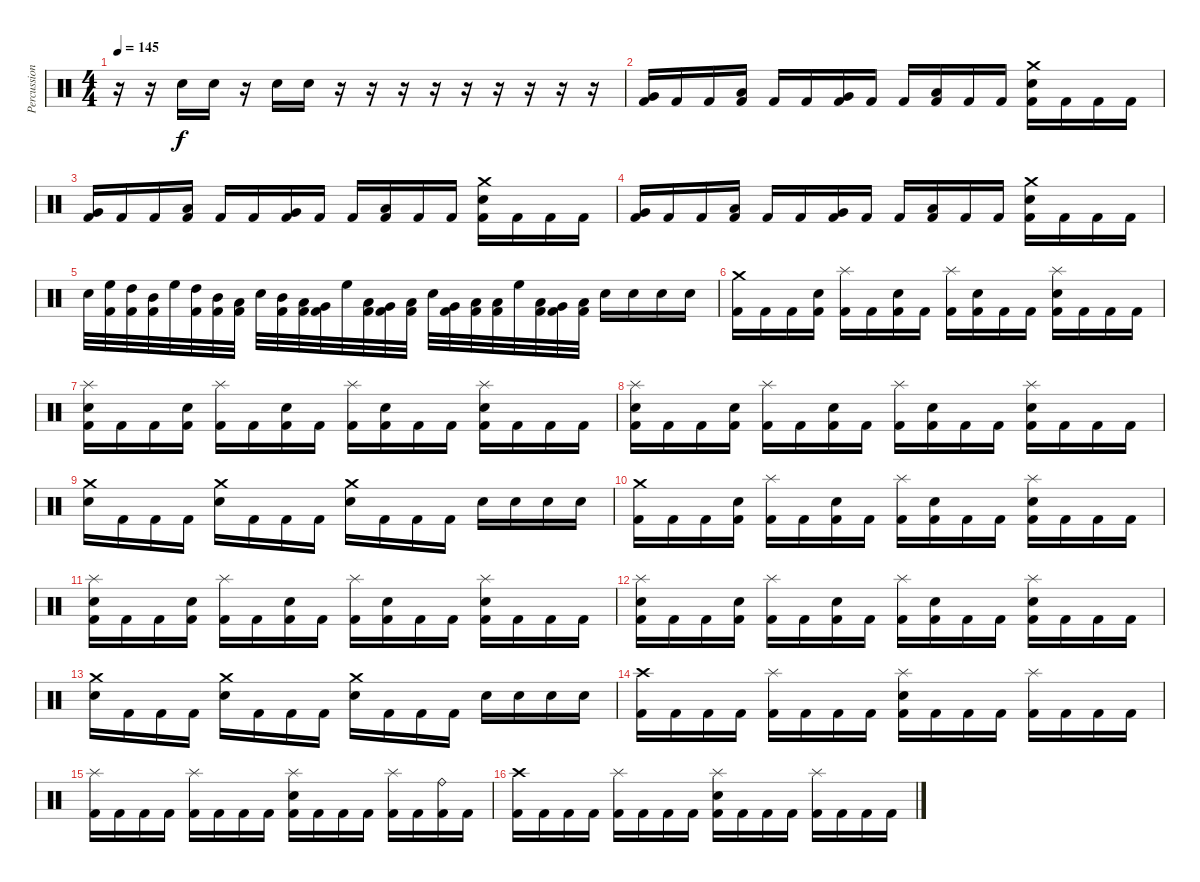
\track ("Percussion" "Percussion") {instrument percussion}
\staff {score}
\articulation defaults
\ts (4 4)
\tempo 145
\clef neutral
\ks c
r.16{dy f} r.16 "Electric Snare (hit)".16 "Electric Snare (hit)".16 r.16 "Electric Snare (hit)".16 "Electric Snare (hit)".16 r.16 r.16 r.16 r.16 r.16 r.16 r.16 r.16 r.16 |
("Very Low Tom (hit)" "Kick (hit) 2").16 "Kick (hit) 2".16 "Kick (hit) 2".16 ("Low Floor Tom (hit)" "Kick (hit) 2").16 "Kick (hit) 2".16 "Kick (hit) 2".16 ("Very Low Tom (hit)" "Kick (hit) 2").16 "Kick (hit) 2".16 "Kick (hit) 2".16 ("Low Floor Tom (hit)" "Kick (hit) 2").16 "Kick (hit) 2".16 "Kick (hit) 2".16 ("Crash medium (hit)" "Electric Snare (hit)" "Kick (hit) 2").16 "Kick (hit) 2".16 "Kick (hit) 2".16 "Kick (hit) 2".16 |
("Very Low Tom (hit)" "Kick (hit) 2").16 "Kick (hit) 2".16 "Kick (hit) 2".16 ("Low Floor Tom (hit)" "Kick (hit) 2").16 "Kick (hit) 2".16 "Kick (hit) 2".16 ("Very Low Tom (hit)" "Kick (hit) 2").16 "Kick (hit) 2".16 "Kick (hit) 2".16 ("Low Floor Tom (hit)" "Kick (hit) 2").16 "Kick (hit) 2".16 "Kick (hit) 2".16 ("Crash medium (hit)" "Electric Snare (hit)" "Kick (hit) 2").16 "Kick (hit) 2".16 "Kick (hit) 2".16 "Kick (hit) 2".16 |
("Very Low Tom (hit)" "Kick (hit) 2").16 "Kick (hit) 2".16 "Kick (hit) 2".16 ("Low Floor Tom (hit)" "Kick (hit) 2").16 "Kick (hit) 2".16 "Kick (hit) 2".16 ("Very Low Tom (hit)" "Kick (hit) 2").16 "Kick (hit) 2".16 "Kick (hit) 2".16 ("Low Floor Tom (hit)" "Kick (hit) 2").16 "Kick (hit) 2".16 "Kick (hit) 2".16 ("Crash medium (hit)" "Electric Snare (hit)" "Kick (hit) 2").16 "Kick (hit) 2".16 "Kick (hit) 2".16 "Kick (hit) 2".16 |
"Electric Snare (hit)".32 ("High Floor Tom (hit)" "Kick (hit) 2").32 ("High Tom (hit)" "Kick (hit) 2").32 ("Mid Tom (hit)" "Kick (hit) 2").32 "High Floor Tom (hit)".32 ("High Tom (hit)" "Kick (hit) 2").32 ("Mid Tom (hit)" "Kick (hit) 2").32 ("Low Tom (hit)" "Kick (hit) 2").32 "Electric Snare (hit)".32 ("Mid Tom (hit)" "Kick (hit) 2").32 ("Low Tom (hit)" "Kick (hit) 2").32 ("Very Low Tom (hit)" "Kick (hit) 2").32 "High Floor Tom (hit)".32 ("Low Tom (hit)" "Kick (hit) 2").32 ("Very Low Tom (hit)" "Kick (hit) 2").32 ("Low Floor Tom (hit)" "Kick (hit) 2").32 "Electric Snare (hit)".32 ("Very Low Tom (hit)" "Kick (hit) 2").32 ("Low Tom (hit)" "Kick (hit) 2").32 ("Low Floor Tom (hit)" "Kick (hit) 2").32 "High Floor Tom (hit)".32 ("Low Floor Tom (hit)" "Kick (hit) 2").32 ("Very Low Tom (hit)" "Kick (hit) 2").32 ("Low Floor Tom (hit)" "Kick (hit) 2").32 "Electric Snare (hit)".16 "Electric Snare (hit)".16 "Electric Snare (hit)".16 "Electric Snare (hit)".16 |
("Crash medium (hit)" "Kick (hit) 2").16 "Kick (hit) 2".16 "Kick (hit) 2".16 ("Electric Snare (hit)" "Kick (hit) 2").16 ("Splash (hit)" "Kick (hit) 2").16 "Kick (hit) 2".16 ("Electric Snare (hit)" "Kick (hit) 2").16 "Kick (hit) 2".16 ("Splash (hit)" "Kick (hit) 2").16 ("Electric Snare (hit)" "Kick (hit) 2").16 "Kick (hit) 2".16 "Kick (hit) 2".16 ("Splash (hit)" "Electric Snare (hit)" "Kick (hit) 2").16 "Kick (hit) 2".16 "Kick (hit) 2".16 "Kick (hit) 2".16 |
("Splash (hit)" "Electric Snare (hit)" "Kick (hit) 2").16 "Kick (hit) 2".16 "Kick (hit) 2".16 ("Electric Snare (hit)" "Kick (hit) 2").16 ("Splash (hit)" "Kick (hit) 2").16 "Kick (hit) 2".16 ("Electric Snare (hit)" "Kick (hit) 2").16 "Kick (hit) 2".16 ("Splash (hit)" "Kick (hit) 2").16 ("Electric Snare (hit)" "Kick (hit) 2").16 "Kick (hit) 2".16 "Kick (hit) 2".16 ("Splash (hit)" "Electric Snare (hit)" "Kick (hit) 2").16 "Kick (hit) 2".16 "Kick (hit) 2".16 "Kick (hit) 2".16 |
("Splash (hit)" "Electric Snare (hit)" "Kick (hit) 2").16 "Kick (hit) 2".16 "Kick (hit) 2".16 ("Electric Snare (hit)" "Kick (hit) 2").16 ("Splash (hit)" "Kick (hit) 2").16 "Kick (hit) 2".16 ("Electric Snare (hit)" "Kick (hit) 2").16 "Kick (hit) 2".16 ("Splash (hit)" "Kick (hit) 2").16 ("Electric Snare (hit)" "Kick (hit) 2").16 "Kick (hit) 2".16 "Kick (hit) 2".16 ("Splash (hit)" "Electric Snare (hit)" "Kick (hit) 2").16 "Kick (hit) 2".16 "Kick (hit) 2".16 "Kick (hit) 2".16 |
("Crash medium (hit)" "Electric Snare (hit)").16 "Kick (hit) 2".16 "Kick (hit) 2".16 "Kick (hit) 2".16 ("Crash medium (hit)" "Electric Snare (hit)").16 "Kick (hit) 2".16 "Kick (hit) 2".16 "Kick (hit) 2".16 ("Crash medium (hit)" "Electric Snare (hit)").16 "Kick (hit) 2".16 "Kick (hit) 2".16 "Kick (hit) 2".16 "Electric Snare (hit)".16 "Electric Snare (hit)".16 "Electric Snare (hit)".16 "Electric Snare (hit)".16 |
("Crash medium (hit)" "Kick (hit) 2").16 "Kick (hit) 2".16 "Kick (hit) 2".16 ("Electric Snare (hit)" "Kick (hit) 2").16 ("Splash (hit)" "Kick (hit) 2").16 "Kick (hit) 2".16 ("Electric Snare (hit)" "Kick (hit) 2").16 "Kick (hit) 2".16 ("Splash (hit)" "Kick (hit) 2").16 ("Electric Snare (hit)" "Kick (hit) 2").16 "Kick (hit) 2".16 "Kick (hit) 2".16 ("Splash (hit)" "Electric Snare (hit)" "Kick (hit) 2").16 "Kick (hit) 2".16 "Kick (hit) 2".16 "Kick (hit) 2".16 |
("Splash (hit)" "Electric Snare (hit)" "Kick (hit) 2").16 "Kick (hit) 2".16 "Kick (hit) 2".16 ("Electric Snare (hit)" "Kick (hit) 2").16 ("Splash (hit)" "Kick (hit) 2").16 "Kick (hit) 2".16 ("Electric Snare (hit)" "Kick (hit) 2").16 "Kick (hit) 2".16 ("Splash (hit)" "Kick (hit) 2").16 ("Electric Snare (hit)" "Kick (hit) 2").16 "Kick (hit) 2".16 "Kick (hit) 2".16 ("Splash (hit)" "Electric Snare (hit)" "Kick (hit) 2").16 "Kick (hit) 2".16 "Kick (hit) 2".16 "Kick (hit) 2".16 |
("Splash (hit)" "Electric Snare (hit)" "Kick (hit) 2").16 "Kick (hit) 2".16 "Kick (hit) 2".16 ("Electric Snare (hit)" "Kick (hit) 2").16 ("Splash (hit)" "Kick (hit) 2").16 "Kick (hit) 2".16 ("Electric Snare (hit)" "Kick (hit) 2").16 "Kick (hit) 2".16 ("Splash (hit)" "Kick (hit) 2").16 ("Electric Snare (hit)" "Kick (hit) 2").16 "Kick (hit) 2".16 "Kick (hit) 2".16 ("Splash (hit)" "Electric Snare (hit)" "Kick (hit) 2").16 "Kick (hit) 2".16 "Kick (hit) 2".16 "Kick (hit) 2".16 |
("Crash medium (hit)" "Electric Snare (hit)").16 "Kick (hit) 2".16 "Kick (hit) 2".16 "Kick (hit) 2".16 ("Crash medium (hit)" "Electric Snare (hit)").16 "Kick (hit) 2".16 "Kick (hit) 2".16 "Kick (hit) 2".16 ("Crash medium (hit)" "Electric Snare (hit)").16 "Kick (hit) 2".16 "Kick (hit) 2".16 "Kick (hit) 2".16 "Electric Snare (hit)".16 "Electric Snare (hit)".16 "Electric Snare (hit)".16 "Electric Snare (hit)".16 |
("Crash high (hit)" "Kick (hit) 2").16 "Kick (hit) 2".16 "Kick (hit) 2".16 "Kick (hit) 2".16 ("Splash (hit)" "Kick (hit) 2").16 "Kick (hit) 2".16 "Kick (hit) 2".16 "Kick (hit) 2".16 ("Splash (hit)" "Electric Snare (hit)" "Kick (hit) 2").16 "Kick (hit) 2".16 "Kick (hit) 2".16 "Kick (hit) 2".16 ("Splash (hit)" "Kick (hit) 2").16 "Kick (hit) 2".16 "Kick (hit) 2".16 "Kick (hit) 2".16 |
("Splash (hit)" "Kick (hit) 2").16 "Kick (hit) 2".16 "Kick (hit) 2".16 "Kick (hit) 2".16 ("Splash (hit)" "Kick (hit) 2").16 "Kick (hit) 2".16 "Kick (hit) 2".16 "Kick (hit) 2".16 ("Splash (hit)" "Electric Snare (hit)" "Kick (hit) 2").16 "Kick (hit) 2".16 "Kick (hit) 2".16 "Kick (hit) 2".16 ("Splash (hit)" "Kick (hit) 2").16 "Kick (hit) 2".16 ("Ride (bell)" "Kick (hit) 2").16 "Kick (hit) 2".16 |
("Crash high (hit)" "Kick (hit) 2").16 "Kick (hit) 2".16 "Kick (hit) 2".16 "Kick (hit) 2".16 ("Splash (hit)" "Kick (hit) 2").16 "Kick (hit) 2".16 "Kick (hit) 2".16 "Kick (hit) 2".16 ("Splash (hit)" "Electric Snare (hit)" "Kick (hit) 2").16 "Kick (hit) 2".16 "Kick (hit) 2".16 "Kick (hit) 2".16 ("Splash (hit)" "Kick (hit) 2").16 "Kick (hit) 2".16 "Kick (hit) 2".16 "Kick (hit) 2".16
